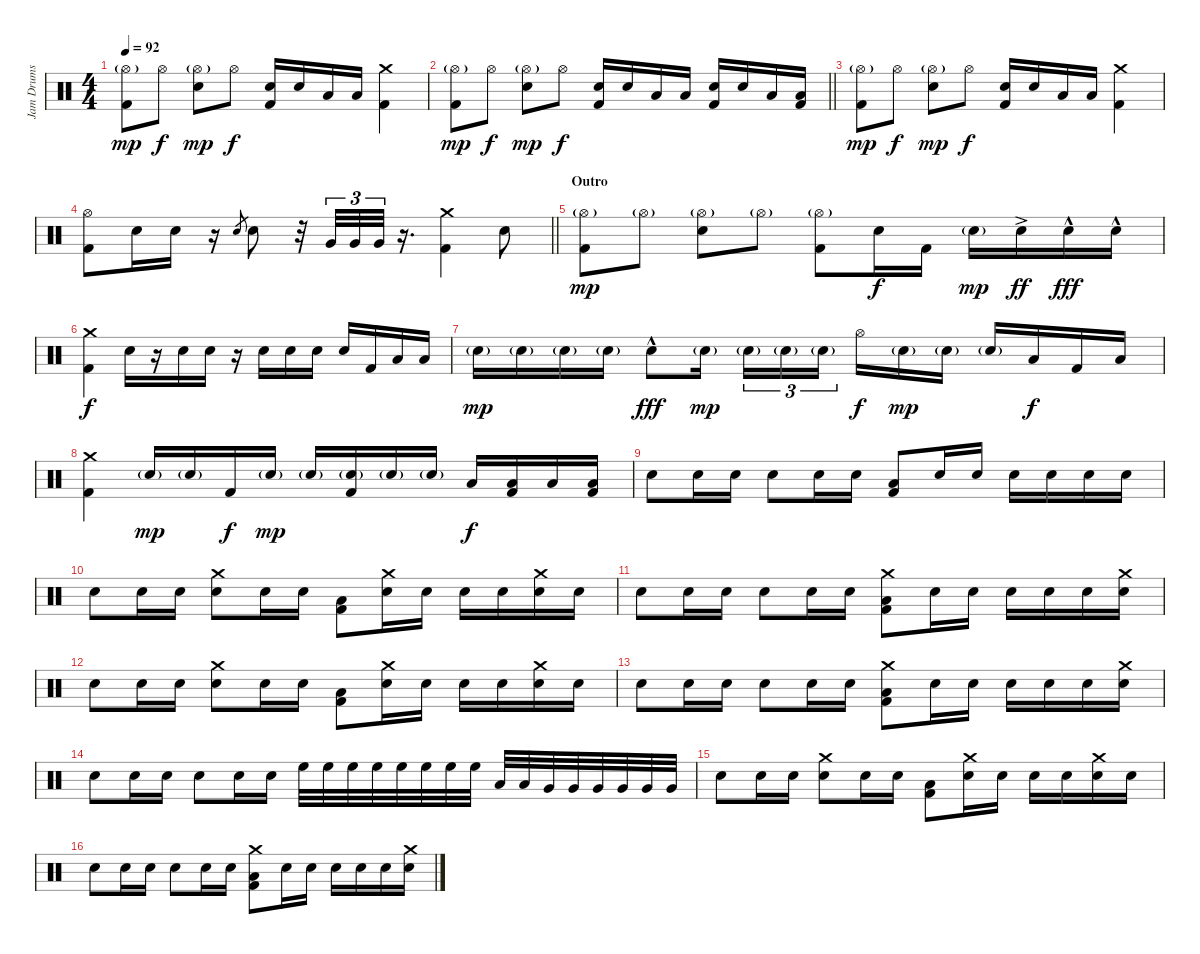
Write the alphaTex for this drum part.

\track ("Jam Drums" "Jam Drums") {instrument percussion}
\staff {score}
\articulation defaults
\ts (4 4)
\tempo 92
\clef neutral
\ks c
("Hi-Hat (open)"{g} "Kick (hit) 2").8{dy mp} "Hi-Hat (open)".8{dy f} ("Hi-Hat (open)"{g} "Snare (hit) 2").8{dy mp} "Hi-Hat (open)".8{dy f} ("Snare (hit) 2" "Kick (hit) 2").16 "Snare (hit) 2".16 "Low Tom (hit)".16 "Low Tom (hit)".16 ("Crash medium (hit)" "Kick (hit) 2").4 |
\barLineRight lightlight
("Hi-Hat (open)"{g} "Kick (hit) 2").8{dy mp} "Hi-Hat (open)".8{dy f} ("Hi-Hat (open)"{g} "Snare (hit) 2").8{dy mp} "Hi-Hat (open)".8{dy f} ("Snare (hit) 2" "Kick (hit) 2").16 "Snare (hit) 2".16 "Low Tom (hit)".16 "Low Tom (hit)".16 ("Snare (hit) 2" "Kick (hit) 2").16 "Snare (hit) 2".16 "Low Tom (hit)".16 ("Low Tom (hit)" "Kick (hit) 2").16 |
("Hi-Hat (open)"{g} "Kick (hit) 2").8{dy mp} "Hi-Hat (open)".8{dy f} ("Hi-Hat (open)"{g} "Snare (hit) 2").8{dy mp} "Hi-Hat (open)".8{dy f} ("Snare (hit) 2" "Kick (hit) 2").16 "Snare (hit) 2".16 "Low Tom (hit)".16 "Low Tom (hit)".16 ("Crash medium (hit)" "Kick (hit) 2").4 |
\barLineRight lightlight
("Hi-Hat (open)" "Kick (hit) 2").8 "Snare (hit) 2".16 "Snare (hit) 2".16 r.16 "Snare (hit) 2".8{gr} "Snare (hit) 2".8 r.32 "Very Low Tom (hit)".32{tu (3 2)} "Very Low Tom (hit)".32{tu (3 2)} "Very Low Tom (hit)".32{tu (3 2)} r.16{d} ("Crash medium (hit)" "Kick (hit) 2").4 "Snare (hit) 2".8 |
\section ("" "Outro")
("Hi-Hat (open)"{g} "Kick (hit) 2").8{dy mp} "Hi-Hat (open)"{g}.8 ("Hi-Hat (open)"{g} "Snare (hit) 2").8 "Hi-Hat (open)"{g}.8 ("Hi-Hat (open)"{g} "Kick (hit) 2").8 "Snare (hit) 2".16{dy f} "Kick (hit) 2".16 "Snare (hit) 2"{g}.16{dy mp} "Snare (hit) 2"{ac}.16{dy ff} "Snare (hit) 2"{hac}.16{dy fff} "Snare (hit) 2"{hac}.16 |
("Crash medium (hit)" "Kick (hit) 2").4{dy f} "Snare (hit) 2".16 r.16 "Snare (hit) 2".16 "Snare (hit) 2".16 r.16 "Snare (hit) 2".16 "Snare (hit) 2".16 "Snare (hit) 2".16 "Snare (hit) 2".16 "Kick (hit) 2".16 "Low Tom (hit)".16 "Low Tom (hit)".16 |
"Snare (hit) 2"{g}.16{dy mp} "Snare (hit) 2"{g}.16 "Snare (hit) 2"{g}.16 "Snare (hit) 2"{g}.16 "Snare (hit) 2"{hac}.8{dy fff} "Snare (hit) 2"{g}.16{dy mp beam splitsecondary} "Snare (hit) 2"{g}.16{tu (3 2)} "Snare (hit) 2"{g}.16{tu (3 2)} "Snare (hit) 2"{g}.16{tu (3 2) beam splitsecondary} "Hi-Hat (open)".16{dy f} "Snare (hit) 2"{g}.16{dy mp} "Snare (hit) 2"{g}.16 "Snare (hit) 2"{g}.16 "Low Tom (hit)".16{dy f} "Kick (hit) 2".16 "Low Tom (hit)".16 |
("Crash medium (hit)" "Kick (hit) 2").4 "Snare (hit) 2"{g}.16{dy mp} "Snare (hit) 2"{g}.16 "Kick (hit) 2".16{dy f} "Snare (hit) 2"{g}.16{dy mp} "Snare (hit) 2"{g}.16 ("Snare (hit) 2"{g} "Kick (hit) 2").16 "Snare (hit) 2"{g}.16 "Snare (hit) 2"{g}.16 "Low Tom (hit)".16{dy f} ("Low Tom (hit)" "Kick (hit) 2").16 "Low Tom (hit)".16 ("Low Tom (hit)" "Kick (hit) 2").16 |
"Snare (hit) 2".8 "Snare (hit) 2".16 "Snare (hit) 2".16 "Snare (hit) 2".8 "Snare (hit) 2".16 "Snare (hit) 2".16 ("Low Tom (hit)" "Kick (hit) 2").8 "Snare (hit) 2".16 "Snare (hit) 2".16 "Snare (hit) 2".16 "Snare (hit) 2".16 "Snare (hit) 2".16 "Snare (hit) 2".16 |
"Snare (hit) 2".8 "Snare (hit) 2".16 "Snare (hit) 2".16 ("Crash medium (hit)" "Snare (hit) 2").8 "Snare (hit) 2".16 "Snare (hit) 2".16 ("Low Tom (hit)" "Kick (hit) 2").8 ("Crash medium (hit)" "Snare (hit) 2").16 "Snare (hit) 2".16 "Snare (hit) 2".16 "Snare (hit) 2".16 ("Crash medium (hit)" "Snare (hit) 2").16 "Snare (hit) 2".16 |
"Snare (hit) 2".8 "Snare (hit) 2".16 "Snare (hit) 2".16 "Snare (hit) 2".8 "Snare (hit) 2".16 "Snare (hit) 2".16 ("Crash medium (hit)" "Low Tom (hit)" "Kick (hit) 2").8 "Snare (hit) 2".16 "Snare (hit) 2".16 "Snare (hit) 2".16 "Snare (hit) 2".16 "Snare (hit) 2".16 ("Crash medium (hit)" "Snare (hit) 2").16 |
"Snare (hit) 2".8 "Snare (hit) 2".16 "Snare (hit) 2".16 ("Crash medium (hit)" "Snare (hit) 2").8 "Snare (hit) 2".16 "Snare (hit) 2".16 ("Low Tom (hit)" "Kick (hit) 2").8 ("Crash medium (hit)" "Snare (hit) 2").16 "Snare (hit) 2".16 "Snare (hit) 2".16 "Snare (hit) 2".16 ("Crash medium (hit)" "Snare (hit) 2").16 "Snare (hit) 2".16 |
"Snare (hit) 2".8 "Snare (hit) 2".16 "Snare (hit) 2".16 "Snare (hit) 2".8 "Snare (hit) 2".16 "Snare (hit) 2".16 ("Crash medium (hit)" "Low Tom (hit)" "Kick (hit) 2").8 "Snare (hit) 2".16 "Snare (hit) 2".16 "Snare (hit) 2".16 "Snare (hit) 2".16 "Snare (hit) 2".16 ("Crash medium (hit)" "Snare (hit) 2").16 |
"Snare (hit) 2".8 "Snare (hit) 2".16 "Snare (hit) 2".16 "Snare (hit) 2".8 "Snare (hit) 2".16 "Snare (hit) 2".16 "High Floor Tom (hit)".32 "High Floor Tom (hit)".32 "High Floor Tom (hit)".32 "High Floor Tom (hit)".32 "High Floor Tom (hit)".32 "High Floor Tom (hit)".32 "High Floor Tom (hit)".32 "High Floor Tom (hit)".32 "Low Tom (hit)".32 "Low Tom (hit)".32 "Very Low Tom (hit)".32 "Very Low Tom (hit)".32 "Very Low Tom (hit)".32 "Very Low Tom (hit)".32 "Very Low Tom (hit)".32 "Very Low Tom (hit)".32 |
"Snare (hit) 2".8 "Snare (hit) 2".16 "Snare (hit) 2".16 ("Crash medium (hit)" "Snare (hit) 2").8 "Snare (hit) 2".16 "Snare (hit) 2".16 ("Low Tom (hit)" "Kick (hit) 2").8 ("Crash medium (hit)" "Snare (hit) 2").16 "Snare (hit) 2".16 "Snare (hit) 2".16 "Snare (hit) 2".16 ("Crash medium (hit)" "Snare (hit) 2").16 "Snare (hit) 2".16 |
"Snare (hit) 2".8 "Snare (hit) 2".16 "Snare (hit) 2".16 "Snare (hit) 2".8 "Snare (hit) 2".16 "Snare (hit) 2".16 ("Crash medium (hit)" "Low Tom (hit)" "Kick (hit) 2").8 "Snare (hit) 2".16 "Snare (hit) 2".16 "Snare (hit) 2".16 "Snare (hit) 2".16 "Snare (hit) 2".16 ("Crash medium (hit)" "Snare (hit) 2").16
